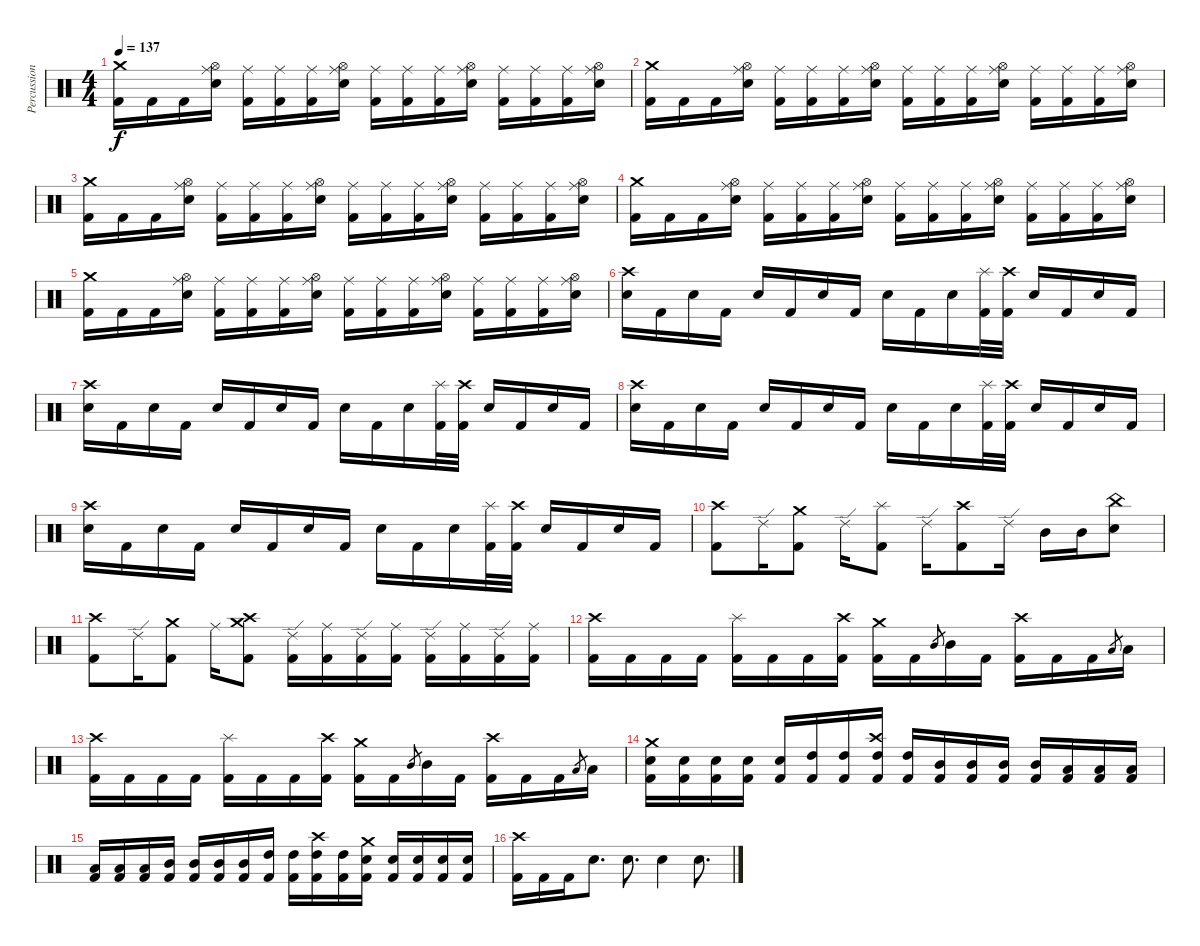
\track ("Percussion" "Percussion") {instrument percussion}
\staff {score}
\articulation defaults
\ts (4 4)
\tempo 137
\clef neutral
\ks c
("Crash medium (hit)" "Kick (hit) 2").16{dy f} "Kick (hit) 2".16 "Kick (hit) 2".16 ("Ride (middle)" "Hi-Hat (open)" "Electric Snare (hit)").16 ("Ride (middle)" "Kick (hit) 2").16 ("Ride (middle)" "Kick (hit) 2").16 ("Ride (middle)" "Kick (hit) 2").16 ("Ride (middle)" "Hi-Hat (open)" "Electric Snare (hit)").16 ("Ride (middle)" "Kick (hit) 2").16 ("Ride (middle)" "Kick (hit) 2").16 ("Ride (middle)" "Kick (hit) 2").16 ("Ride (middle)" "Hi-Hat (open)" "Electric Snare (hit)").16 ("Ride (middle)" "Kick (hit) 2").16 ("Ride (middle)" "Kick (hit) 2").16 ("Ride (middle)" "Kick (hit) 2").16 ("Ride (middle)" "Hi-Hat (open)" "Electric Snare (hit)").16 |
("Crash medium (hit)" "Kick (hit) 2").16 "Kick (hit) 2".16 "Kick (hit) 2".16 ("Ride (middle)" "Hi-Hat (open)" "Electric Snare (hit)").16 ("Ride (middle)" "Kick (hit) 2").16 ("Ride (middle)" "Kick (hit) 2").16 ("Ride (middle)" "Kick (hit) 2").16 ("Ride (middle)" "Hi-Hat (open)" "Electric Snare (hit)").16 ("Ride (middle)" "Kick (hit) 2").16 ("Ride (middle)" "Kick (hit) 2").16 ("Ride (middle)" "Kick (hit) 2").16 ("Ride (middle)" "Hi-Hat (open)" "Electric Snare (hit)").16 ("Ride (middle)" "Kick (hit) 2").16 ("Ride (middle)" "Kick (hit) 2").16 ("Ride (middle)" "Kick (hit) 2").16 ("Ride (middle)" "Hi-Hat (open)" "Electric Snare (hit)").16 |
("Crash medium (hit)" "Kick (hit) 2").16 "Kick (hit) 2".16 "Kick (hit) 2".16 ("Ride (middle)" "Hi-Hat (open)" "Electric Snare (hit)").16 ("Ride (middle)" "Kick (hit) 2").16 ("Ride (middle)" "Kick (hit) 2").16 ("Ride (middle)" "Kick (hit) 2").16 ("Ride (middle)" "Hi-Hat (open)" "Electric Snare (hit)").16 ("Ride (middle)" "Kick (hit) 2").16 ("Ride (middle)" "Kick (hit) 2").16 ("Ride (middle)" "Kick (hit) 2").16 ("Ride (middle)" "Hi-Hat (open)" "Electric Snare (hit)").16 ("Ride (middle)" "Kick (hit) 2").16 ("Ride (middle)" "Kick (hit) 2").16 ("Ride (middle)" "Kick (hit) 2").16 ("Ride (middle)" "Hi-Hat (open)" "Electric Snare (hit)").16 |
("Crash medium (hit)" "Kick (hit) 2").16 "Kick (hit) 2".16 "Kick (hit) 2".16 ("Ride (middle)" "Hi-Hat (open)" "Electric Snare (hit)").16 ("Ride (middle)" "Kick (hit) 2").16 ("Ride (middle)" "Kick (hit) 2").16 ("Ride (middle)" "Kick (hit) 2").16 ("Ride (middle)" "Hi-Hat (open)" "Electric Snare (hit)").16 ("Ride (middle)" "Kick (hit) 2").16 ("Ride (middle)" "Kick (hit) 2").16 ("Ride (middle)" "Kick (hit) 2").16 ("Ride (middle)" "Hi-Hat (open)" "Electric Snare (hit)").16 ("Ride (middle)" "Kick (hit) 2").16 ("Ride (middle)" "Kick (hit) 2").16 ("Ride (middle)" "Kick (hit) 2").16 ("Ride (middle)" "Hi-Hat (open)" "Electric Snare (hit)").16 |
("Crash medium (hit)" "Kick (hit) 2").16 "Kick (hit) 2".16 "Kick (hit) 2".16 ("Ride (middle)" "Hi-Hat (open)" "Electric Snare (hit)").16 ("Ride (middle)" "Kick (hit) 2").16 ("Ride (middle)" "Kick (hit) 2").16 ("Ride (middle)" "Kick (hit) 2").16 ("Ride (middle)" "Hi-Hat (open)" "Electric Snare (hit)").16 ("Ride (middle)" "Kick (hit) 2").16 ("Ride (middle)" "Kick (hit) 2").16 ("Ride (middle)" "Kick (hit) 2").16 ("Ride (middle)" "Hi-Hat (open)" "Electric Snare (hit)").16 ("Ride (middle)" "Kick (hit) 2").16 ("Ride (middle)" "Kick (hit) 2").16 ("Ride (middle)" "Kick (hit) 2").16 ("Ride (middle)" "Hi-Hat (open)" "Electric Snare (hit)").16 |
("Crash high (hit)" "Electric Snare (hit)").16 "Kick (hit) 2".16 "Electric Snare (hit)".16 "Kick (hit) 2".16 "Electric Snare (hit)".16 "Kick (hit) 2".16 "Electric Snare (hit)".16 "Kick (hit) 2".16 "Electric Snare (hit)".16 "Kick (hit) 2".16 "Electric Snare (hit)".16 ("Splash (hit)" "Kick (hit) 2").32 ("Crash high (hit)" "Kick (hit) 2").32 "Electric Snare (hit)".16 "Kick (hit) 2".16 "Electric Snare (hit)".16 "Kick (hit) 2".16 |
("Crash high (hit)" "Electric Snare (hit)").16 "Kick (hit) 2".16 "Electric Snare (hit)".16 "Kick (hit) 2".16 "Electric Snare (hit)".16 "Kick (hit) 2".16 "Electric Snare (hit)".16 "Kick (hit) 2".16 "Electric Snare (hit)".16 "Kick (hit) 2".16 "Electric Snare (hit)".16 ("Splash (hit)" "Kick (hit) 2").32 ("Crash high (hit)" "Kick (hit) 2").32 "Electric Snare (hit)".16 "Kick (hit) 2".16 "Electric Snare (hit)".16 "Kick (hit) 2".16 |
("Crash high (hit)" "Electric Snare (hit)").16 "Kick (hit) 2".16 "Electric Snare (hit)".16 "Kick (hit) 2".16 "Electric Snare (hit)".16 "Kick (hit) 2".16 "Electric Snare (hit)".16 "Kick (hit) 2".16 "Electric Snare (hit)".16 "Kick (hit) 2".16 "Electric Snare (hit)".16 ("Splash (hit)" "Kick (hit) 2").32 ("Crash high (hit)" "Kick (hit) 2").32 "Electric Snare (hit)".16 "Kick (hit) 2".16 "Electric Snare (hit)".16 "Kick (hit) 2".16 |
("Crash high (hit)" "Electric Snare (hit)").16 "Kick (hit) 2".16 "Electric Snare (hit)".16 "Kick (hit) 2".16 "Electric Snare (hit)".16 "Kick (hit) 2".16 "Electric Snare (hit)".16 "Kick (hit) 2".16 "Electric Snare (hit)".16 "Kick (hit) 2".16 "Electric Snare (hit)".16 ("Splash (hit)" "Kick (hit) 2").32 ("Crash high (hit)" "Kick (hit) 2").32 "Electric Snare (hit)".16 "Kick (hit) 2".16 "Electric Snare (hit)".16 "Kick (hit) 2".16 |
("Crash high (hit)" "Kick (hit) 2").8 "Ride (edge) 2".16 ("Crash medium (hit)" "Kick (hit) 2").8 "Ride (edge) 2".16 ("Splash (hit)" "Kick (hit) 2").8 "Ride (edge) 2".16 ("Crash high (hit)" "Kick (hit) 2").8 "Ride (edge) 2".16 "Mid Tom (hit)".16 "Mid Tom (hit)".16 ("China (hit)" "Electric Snare (hit)").8 |
("Crash high (hit)" "Kick (hit) 2").8 "Ride (edge) 2".16 ("Crash medium (hit)" "Kick (hit) 2").8 "Ride (middle)".16 ("Crash high (hit)" "Crash medium (hit)" "Kick (hit) 2").8 ("Ride (edge) 2" "Kick (hit) 2").16 ("Ride (middle)" "Kick (hit) 2").16 ("Ride (edge) 2" "Kick (hit) 2").16 ("Ride (middle)" "Kick (hit) 2").16 ("Ride (edge) 2" "Kick (hit) 2").16 ("Ride (middle)" "Kick (hit) 2").16 ("Ride (edge) 2" "Kick (hit) 2").16 ("Ride (middle)" "Kick (hit) 2").16 |
("Crash high (hit)" "Kick (hit) 2").16 "Kick (hit) 2".16 "Kick (hit) 2".16 "Kick (hit) 2".16 ("Splash (hit)" "Kick (hit) 2").16 "Kick (hit) 2".16 "Kick (hit) 2".16 ("Crash high (hit)" "Kick (hit) 2").16 ("Crash medium (hit)" "Kick (hit) 2").16 "Kick (hit) 2".16 "Mid Tom (hit)".8{gr} "Mid Tom (hit)".16 "Kick (hit) 2".16 ("Crash high (hit)" "Kick (hit) 2").16 "Kick (hit) 2".16 "Kick (hit) 2".16 "Low Tom (hit)".8{gr} "Low Tom (hit)".16 |
("Crash high (hit)" "Kick (hit) 2").16 "Kick (hit) 2".16 "Kick (hit) 2".16 "Kick (hit) 2".16 ("Splash (hit)" "Kick (hit) 2").16 "Kick (hit) 2".16 "Kick (hit) 2".16 ("Crash high (hit)" "Kick (hit) 2").16 ("Crash medium (hit)" "Kick (hit) 2").16 "Kick (hit) 2".16 "Mid Tom (hit)".8{gr} "Mid Tom (hit)".16 "Kick (hit) 2".16 ("Crash high (hit)" "Kick (hit) 2").16 "Kick (hit) 2".16 "Kick (hit) 2".16 "Low Tom (hit)".8{gr} "Low Tom (hit)".16 |
("Crash medium (hit)" "Electric Snare (hit)" "Kick (hit) 2").16 ("Electric Snare (hit)" "Kick (hit) 2").16 ("Electric Snare (hit)" "Kick (hit) 2").16 ("Electric Snare (hit)" "Kick (hit) 2").16 ("Electric Snare (hit)" "Kick (hit) 2").16 ("High Tom (hit)" "Kick (hit) 2").16 ("High Tom (hit)" "Kick (hit) 2").16 ("Crash high (hit)" "High Tom (hit)" "Kick (hit) 2").16 ("High Tom (hit)" "Kick (hit) 2").16 ("Mid Tom (hit)" "Kick (hit) 2").16 ("Mid Tom (hit)" "Kick (hit) 2").16 ("Mid Tom (hit)" "Kick (hit) 2").16 ("Mid Tom (hit)" "Kick (hit) 2").16 ("Low Tom (hit)" "Kick (hit) 2").16 ("Low Tom (hit)" "Kick (hit) 2").16 ("Low Tom (hit)" "Kick (hit) 2").16 |
("Low Tom (hit)" "Kick (hit) 2").16 ("Low Tom (hit)" "Kick (hit) 2").16 ("Low Tom (hit)" "Kick (hit) 2").16 ("Mid Tom (hit)" "Kick (hit) 2").16 ("Mid Tom (hit)" "Kick (hit) 2").16 ("Mid Tom (hit)" "Kick (hit) 2").16 ("Mid Tom (hit)" "Kick (hit) 2").16 ("High Tom (hit)" "Kick (hit) 2").16 ("High Tom (hit)" "Kick (hit) 2").16 ("Crash high (hit)" "High Tom (hit)" "Kick (hit) 2").16 ("High Tom (hit)" "Kick (hit) 2").16 ("Crash medium (hit)" "Electric Snare (hit)" "Kick (hit) 2").16 ("Electric Snare (hit)" "Kick (hit) 2").16 ("Electric Snare (hit)" "Kick (hit) 2").16 ("Electric Snare (hit)" "Kick (hit) 2").16 ("Electric Snare (hit)" "Kick (hit) 2").16 |
("Crash high (hit)" "Kick (hit) 2").16 "Kick (hit) 2".16 "Kick (hit) 2".16 "Electric Snare (hit)".8{d} "Electric Snare (hit)".8{d} "Electric Snare (hit)".4 "Electric Snare (hit)".8{d}
